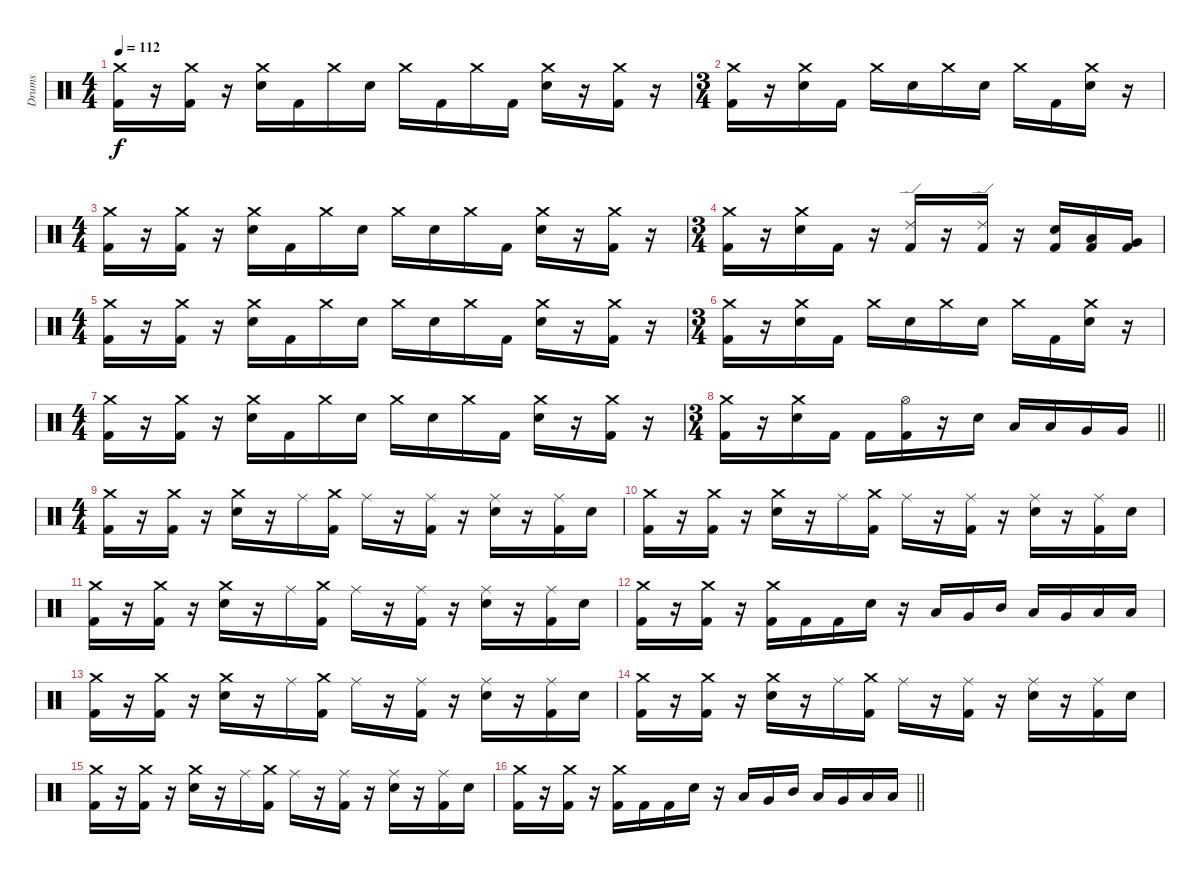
\track ("Drums" "Drums") {instrument percussion}
\staff {score}
\articulation defaults
\ts (4 4)
\section ("" "")
\tempo 112
\clef neutral
\ks c
("Crash medium (hit)" "Kick (hit) 2").16{dy f} r.16 ("Crash medium (hit)" "Kick (hit) 2").16 r.16 ("Crash medium (hit)" "Electric Snare (hit)").16 "Kick (hit) 2".16 "Crash medium (hit)".16 "Electric Snare (hit)".16 "Crash medium (hit)".16 "Kick (hit) 2".16 "Crash medium (hit)".16 "Kick (hit) 2".16 ("Crash medium (hit)" "Electric Snare (hit)").16 r.16 ("Crash medium (hit)" "Kick (hit) 2").16 r.16 |
\ts (3 4)
("Crash medium (hit)" "Kick (hit) 2").16 r.16 ("Crash medium (hit)" "Electric Snare (hit)").16 "Kick (hit) 2".16 "Crash medium (hit)".16 "Electric Snare (hit)".16 "Crash medium (hit)".16 "Electric Snare (hit)".16 "Crash medium (hit)".16 "Kick (hit) 2".16 ("Crash medium (hit)" "Electric Snare (hit)").16 r.16 |
\ts (4 4)
("Crash medium (hit)" "Kick (hit) 2").16 r.16 ("Crash medium (hit)" "Kick (hit) 2").16 r.16 ("Crash medium (hit)" "Electric Snare (hit)").16 "Kick (hit) 2".16 "Crash medium (hit)".16 "Electric Snare (hit)".16 "Crash medium (hit)".16 "Electric Snare (hit)".16 "Crash medium (hit)".16 "Kick (hit) 2".16 ("Crash medium (hit)" "Electric Snare (hit)").16 r.16 ("Crash medium (hit)" "Kick (hit) 2").16 r.16 |
\ts (3 4)
("Crash medium (hit)" "Kick (hit) 2").16 r.16 ("Crash medium (hit)" "Electric Snare (hit)").16 "Kick (hit) 2".16 r.16 ("Ride (edge) 2" "Kick (hit) 2").16 r.16 ("Ride (edge) 2" "Kick (hit) 2").16 r.16 ("Electric Snare (hit)" "Kick (hit) 2").16 ("Low Tom (hit)" "Kick (hit) 2").16 ("Very Low Tom (hit)" "Kick (hit) 2").16 |
\ts (4 4)
("Crash medium (hit)" "Kick (hit) 2").16 r.16 ("Crash medium (hit)" "Kick (hit) 2").16 r.16 ("Crash medium (hit)" "Electric Snare (hit)").16 "Kick (hit) 2".16 "Crash medium (hit)".16 "Electric Snare (hit)".16 "Crash medium (hit)".16 "Electric Snare (hit)".16 "Crash medium (hit)".16 "Kick (hit) 2".16 ("Crash medium (hit)" "Electric Snare (hit)").16 r.16 ("Crash medium (hit)" "Kick (hit) 2").16 r.16 |
\ts (3 4)
("Crash medium (hit)" "Kick (hit) 2").16 r.16 ("Crash medium (hit)" "Electric Snare (hit)").16 "Kick (hit) 2".16 "Crash medium (hit)".16 "Electric Snare (hit)".16 "Crash medium (hit)".16 "Electric Snare (hit)".16 "Crash medium (hit)".16 "Kick (hit) 2".16 ("Crash medium (hit)" "Electric Snare (hit)").16 r.16 |
\ts (4 4)
("Crash medium (hit)" "Kick (hit) 2").16 r.16 ("Crash medium (hit)" "Kick (hit) 2").16 r.16 ("Crash medium (hit)" "Electric Snare (hit)").16 "Kick (hit) 2".16 "Crash medium (hit)".16 "Electric Snare (hit)".16 "Crash medium (hit)".16 "Electric Snare (hit)".16 "Crash medium (hit)".16 "Kick (hit) 2".16 ("Crash medium (hit)" "Electric Snare (hit)").16 r.16 ("Crash medium (hit)" "Kick (hit) 2").16 r.16 |
\ts (3 4)
\barLineRight lightlight
("Crash medium (hit)" "Kick (hit) 2").16 r.16 ("Crash medium (hit)" "Electric Snare (hit)").16 "Kick (hit) 2".16 "Kick (hit) 2".16 ("Hi-Hat (open)" "Kick (hit) 2").16 r.16 "Electric Snare (hit)".16 "Low Tom (hit)".16 "Low Tom (hit)".16 "Very Low Tom (hit)".16 "Very Low Tom (hit)".16 |
\ts (4 4)
\section ("" "")
("Crash medium (hit)" "Kick (hit) 2").16 r.16 ("Crash medium (hit)" "Kick (hit) 2").16 r.16 ("Crash medium (hit)" "Electric Snare (hit)").16 r.16 "Ride (middle)".16 ("Crash medium (hit)" "Kick (hit) 2").16 "Ride (middle)".16 r.16 ("Ride (middle)" "Kick (hit) 2").16 r.16 ("Ride (middle)" "Electric Snare (hit)").16 r.16 ("Ride (middle)" "Kick (hit) 2").16 "Electric Snare (hit)".16 |
("Crash medium (hit)" "Kick (hit) 2").16 r.16 ("Crash medium (hit)" "Kick (hit) 2").16 r.16 ("Crash medium (hit)" "Electric Snare (hit)").16 r.16 "Ride (middle)".16 ("Crash medium (hit)" "Kick (hit) 2").16 "Ride (middle)".16 r.16 ("Ride (middle)" "Kick (hit) 2").16 r.16 ("Ride (middle)" "Electric Snare (hit)").16 r.16 ("Ride (middle)" "Kick (hit) 2").16 "Electric Snare (hit)".16 |
("Crash medium (hit)" "Kick (hit) 2").16 r.16 ("Crash medium (hit)" "Kick (hit) 2").16 r.16 ("Crash medium (hit)" "Electric Snare (hit)").16 r.16 "Ride (middle)".16 ("Crash medium (hit)" "Kick (hit) 2").16 "Ride (middle)".16 r.16 ("Ride (middle)" "Kick (hit) 2").16 r.16 ("Ride (middle)" "Electric Snare (hit)").16 r.16 ("Ride (middle)" "Kick (hit) 2").16 "Electric Snare (hit)".16 |
("Crash medium (hit)" "Kick (hit) 2").16 r.16 ("Crash medium (hit)" "Kick (hit) 2").16 r.16 ("Crash medium (hit)" "Kick (hit) 2").16 "Kick (hit) 2".16 "Kick (hit) 2".16 "Electric Snare (hit)".16 r.16 "Low Tom (hit)".16 "Very Low Tom (hit)".16 "Mid Tom (hit)".16 "Low Tom (hit)".16 "Very Low Tom (hit)".16 "Low Floor Tom (hit)".16 "Low Floor Tom (hit)".16 |
("Crash medium (hit)" "Kick (hit) 2").16 r.16 ("Crash medium (hit)" "Kick (hit) 2").16 r.16 ("Crash medium (hit)" "Electric Snare (hit)").16 r.16 "Ride (middle)".16 ("Crash medium (hit)" "Kick (hit) 2").16 "Ride (middle)".16 r.16 ("Ride (middle)" "Kick (hit) 2").16 r.16 ("Ride (middle)" "Electric Snare (hit)").16 r.16 ("Ride (middle)" "Kick (hit) 2").16 "Electric Snare (hit)".16 |
("Crash medium (hit)" "Kick (hit) 2").16 r.16 ("Crash medium (hit)" "Kick (hit) 2").16 r.16 ("Crash medium (hit)" "Electric Snare (hit)").16 r.16 "Ride (middle)".16 ("Crash medium (hit)" "Kick (hit) 2").16 "Ride (middle)".16 r.16 ("Ride (middle)" "Kick (hit) 2").16 r.16 ("Ride (middle)" "Electric Snare (hit)").16 r.16 ("Ride (middle)" "Kick (hit) 2").16 "Electric Snare (hit)".16 |
("Crash medium (hit)" "Kick (hit) 2").16 r.16 ("Crash medium (hit)" "Kick (hit) 2").16 r.16 ("Crash medium (hit)" "Electric Snare (hit)").16 r.16 "Ride (middle)".16 ("Crash medium (hit)" "Kick (hit) 2").16 "Ride (middle)".16 r.16 ("Ride (middle)" "Kick (hit) 2").16 r.16 ("Ride (middle)" "Electric Snare (hit)").16 r.16 ("Ride (middle)" "Kick (hit) 2").16 "Electric Snare (hit)".16 |
\barLineRight lightlight
("Crash medium (hit)" "Kick (hit) 2").16 r.16 ("Crash medium (hit)" "Kick (hit) 2").16 r.16 ("Crash medium (hit)" "Kick (hit) 2").16 "Kick (hit) 2".16 "Kick (hit) 2".16 "Electric Snare (hit)".16 r.16 "Low Tom (hit)".16 "Very Low Tom (hit)".16 "Mid Tom (hit)".16 "Low Tom (hit)".16 "Very Low Tom (hit)".16 "Low Floor Tom (hit)".16 "Low Floor Tom (hit)".16
